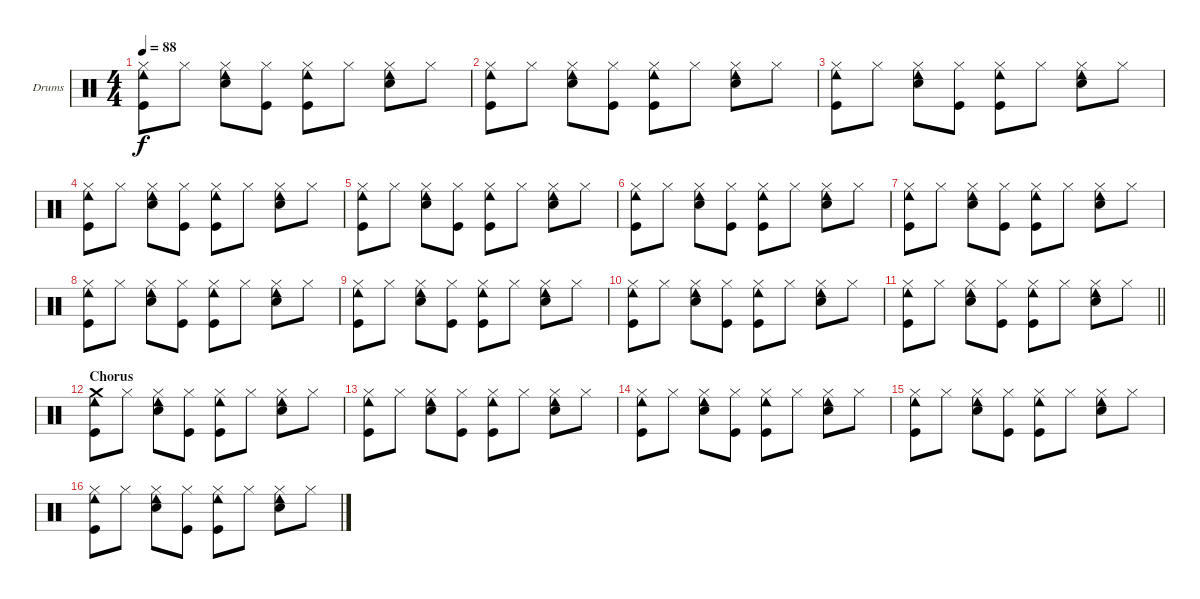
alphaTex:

\bracketExtendMode groupsimilarinstruments
\firstSystemTrackNameOrientation horizontal
\otherSystemsTrackNameOrientation horizontal
\track ("Drumkit" "Drums") {instrument percussion}
\staff {score}
\articulation defaults
\ts (4 4)
\tempo 88
\clef neutral
\ks c
("Kick (hit)" "Hi-Hat (closed)" "Cowbell low (hit)").8{dy f} "Hi-Hat (closed)".8 ("Snare (hit) 2" "Hi-Hat (closed)" "Cowbell low (hit)").8 ("Kick (hit)" "Hi-Hat (closed)").8 ("Kick (hit)" "Hi-Hat (closed)" "Cowbell low (hit)").8 "Hi-Hat (closed)".8 ("Snare (hit) 2" "Hi-Hat (closed)" "Cowbell low (hit)").8 "Hi-Hat (closed)".8 |
("Kick (hit)" "Hi-Hat (closed)" "Cowbell low (hit)").8 "Hi-Hat (closed)".8 ("Snare (hit) 2" "Hi-Hat (closed)" "Cowbell low (hit)").8 ("Kick (hit)" "Hi-Hat (closed)").8 ("Kick (hit)" "Hi-Hat (closed)" "Cowbell low (hit)").8 "Hi-Hat (closed)".8 ("Snare (hit) 2" "Hi-Hat (closed)" "Cowbell low (hit)").8 "Hi-Hat (closed)".8 |
("Kick (hit)" "Hi-Hat (closed)" "Cowbell low (hit)").8 "Hi-Hat (closed)".8 ("Snare (hit) 2" "Hi-Hat (closed)" "Cowbell low (hit)").8 ("Kick (hit)" "Hi-Hat (closed)").8 ("Kick (hit)" "Hi-Hat (closed)" "Cowbell low (hit)").8 "Hi-Hat (closed)".8 ("Snare (hit) 2" "Hi-Hat (closed)" "Cowbell low (hit)").8 "Hi-Hat (closed)".8 |
("Kick (hit)" "Hi-Hat (closed)" "Cowbell low (hit)").8 "Hi-Hat (closed)".8 ("Snare (hit) 2" "Hi-Hat (closed)" "Cowbell low (hit)").8 ("Kick (hit)" "Hi-Hat (closed)").8 ("Kick (hit)" "Hi-Hat (closed)" "Cowbell low (hit)").8 "Hi-Hat (closed)".8 ("Snare (hit) 2" "Hi-Hat (closed)" "Cowbell low (hit)").8 "Hi-Hat (closed)".8 |
("Kick (hit)" "Hi-Hat (closed)" "Cowbell low (hit)").8 "Hi-Hat (closed)".8 ("Snare (hit) 2" "Hi-Hat (closed)" "Cowbell low (hit)").8 ("Kick (hit)" "Hi-Hat (closed)").8 ("Kick (hit)" "Hi-Hat (closed)" "Cowbell low (hit)").8 "Hi-Hat (closed)".8 ("Snare (hit) 2" "Hi-Hat (closed)" "Cowbell low (hit)").8 "Hi-Hat (closed)".8 |
("Kick (hit)" "Hi-Hat (closed)" "Cowbell low (hit)").8 "Hi-Hat (closed)".8 ("Snare (hit) 2" "Hi-Hat (closed)" "Cowbell low (hit)").8 ("Kick (hit)" "Hi-Hat (closed)").8 ("Kick (hit)" "Hi-Hat (closed)" "Cowbell low (hit)").8 "Hi-Hat (closed)".8 ("Snare (hit) 2" "Hi-Hat (closed)" "Cowbell low (hit)").8 "Hi-Hat (closed)".8 |
("Kick (hit)" "Hi-Hat (closed)" "Cowbell low (hit)").8 "Hi-Hat (closed)".8 ("Snare (hit) 2" "Hi-Hat (closed)" "Cowbell low (hit)").8 ("Kick (hit)" "Hi-Hat (closed)").8 ("Kick (hit)" "Hi-Hat (closed)" "Cowbell low (hit)").8 "Hi-Hat (closed)".8 ("Snare (hit) 2" "Hi-Hat (closed)" "Cowbell low (hit)").8 "Hi-Hat (closed)".8 |
("Kick (hit)" "Hi-Hat (closed)" "Cowbell low (hit)").8 "Hi-Hat (closed)".8 ("Snare (hit) 2" "Hi-Hat (closed)" "Cowbell low (hit)").8 ("Kick (hit)" "Hi-Hat (closed)").8 ("Kick (hit)" "Hi-Hat (closed)" "Cowbell low (hit)").8 "Hi-Hat (closed)".8 ("Snare (hit) 2" "Hi-Hat (closed)" "Cowbell low (hit)").8 "Hi-Hat (closed)".8 |
("Kick (hit)" "Hi-Hat (closed)" "Cowbell low (hit)").8 "Hi-Hat (closed)".8 ("Snare (hit) 2" "Hi-Hat (closed)" "Cowbell low (hit)").8 ("Kick (hit)" "Hi-Hat (closed)").8 ("Kick (hit)" "Hi-Hat (closed)" "Cowbell low (hit)").8 "Hi-Hat (closed)".8 ("Snare (hit) 2" "Hi-Hat (closed)" "Cowbell low (hit)").8 "Hi-Hat (closed)".8 |
("Kick (hit)" "Hi-Hat (closed)" "Cowbell low (hit)").8 "Hi-Hat (closed)".8 ("Snare (hit) 2" "Hi-Hat (closed)" "Cowbell low (hit)").8 ("Kick (hit)" "Hi-Hat (closed)").8 ("Kick (hit)" "Hi-Hat (closed)" "Cowbell low (hit)").8 "Hi-Hat (closed)".8 ("Snare (hit) 2" "Hi-Hat (closed)" "Cowbell low (hit)").8 "Hi-Hat (closed)".8 |
\barLineRight lightlight
("Kick (hit)" "Hi-Hat (closed)" "Cowbell low (hit)").8 "Hi-Hat (closed)".8 ("Snare (hit) 2" "Hi-Hat (closed)" "Cowbell low (hit)").8 ("Kick (hit)" "Hi-Hat (closed)").8 ("Kick (hit)" "Hi-Hat (closed)" "Cowbell low (hit)").8 "Hi-Hat (closed)".8 ("Snare (hit) 2" "Hi-Hat (closed)" "Cowbell low (hit)").8 "Hi-Hat (closed)".8 |
\section ("" "Chorus")
("Kick (hit)" "Cowbell low (hit)" "Crash medium (hit)").8 "Hi-Hat (closed)".8 ("Snare (hit) 2" "Hi-Hat (closed)" "Cowbell low (hit)").8 ("Kick (hit)" "Hi-Hat (closed)").8 ("Kick (hit)" "Cowbell low (hit)" "Hi-Hat (closed)").8 "Hi-Hat (closed)".8 ("Snare (hit) 2" "Hi-Hat (closed)" "Cowbell low (hit)").8 "Hi-Hat (closed)".8 |
("Kick (hit)" "Hi-Hat (closed)" "Cowbell low (hit)").8 "Hi-Hat (closed)".8 ("Snare (hit) 2" "Hi-Hat (closed)" "Cowbell low (hit)").8 ("Kick (hit)" "Hi-Hat (closed)").8 ("Kick (hit)" "Hi-Hat (closed)" "Cowbell low (hit)").8 "Hi-Hat (closed)".8 ("Snare (hit) 2" "Hi-Hat (closed)" "Cowbell low (hit)").8 "Hi-Hat (closed)".8 |
("Kick (hit)" "Hi-Hat (closed)" "Cowbell low (hit)").8 "Hi-Hat (closed)".8 ("Snare (hit) 2" "Hi-Hat (closed)" "Cowbell low (hit)").8 ("Kick (hit)" "Hi-Hat (closed)").8 ("Kick (hit)" "Hi-Hat (closed)" "Cowbell low (hit)").8 "Hi-Hat (closed)".8 ("Snare (hit) 2" "Hi-Hat (closed)" "Cowbell low (hit)").8 "Hi-Hat (closed)".8 |
("Kick (hit)" "Hi-Hat (closed)" "Cowbell low (hit)").8 "Hi-Hat (closed)".8 ("Snare (hit) 2" "Hi-Hat (closed)" "Cowbell low (hit)").8 ("Kick (hit)" "Hi-Hat (closed)").8 ("Kick (hit)" "Hi-Hat (closed)" "Cowbell low (hit)").8 "Hi-Hat (closed)".8 ("Snare (hit) 2" "Hi-Hat (closed)" "Cowbell low (hit)").8 "Hi-Hat (closed)".8 |
("Kick (hit)" "Hi-Hat (closed)" "Cowbell low (hit)").8 "Hi-Hat (closed)".8 ("Snare (hit) 2" "Hi-Hat (closed)" "Cowbell low (hit)").8 ("Kick (hit)" "Hi-Hat (closed)").8 ("Kick (hit)" "Hi-Hat (closed)" "Cowbell low (hit)").8 "Hi-Hat (closed)".8 ("Snare (hit) 2" "Hi-Hat (closed)" "Cowbell low (hit)").8 "Hi-Hat (closed)".8
